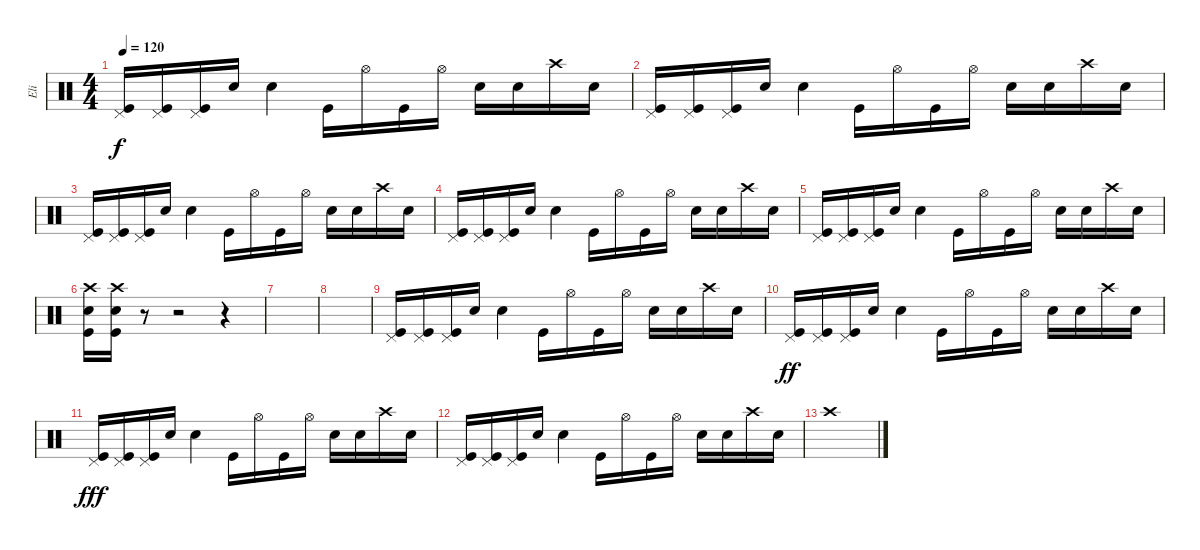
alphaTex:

\track ("Eli" "Eli") {instrument percussion}
\staff {score}
\articulation defaults
\ts (4 4)
\tempo 120
\clef neutral
\ks c
("Pedal Hi-Hat (hit)" "Kick (hit)").16{dy f} ("Pedal Hi-Hat (hit)" "Kick (hit)").16 ("Pedal Hi-Hat (hit)" "Kick (hit)").16 "Electric Snare (hit)".16 "Electric Snare (hit)".4 "Kick (hit)".16 "Hi-Hat (open)".16 "Kick (hit)".16 "Hi-Hat (open)".16 "Electric Snare (hit)".16 "Electric Snare (hit)".16 "Crash high (hit)".16 "Electric Snare (hit)".16 |
("Pedal Hi-Hat (hit)" "Kick (hit)").16 ("Pedal Hi-Hat (hit)" "Kick (hit)").16 ("Pedal Hi-Hat (hit)" "Kick (hit)").16 "Electric Snare (hit)".16 "Electric Snare (hit)".4 "Kick (hit)".16 "Hi-Hat (open)".16 "Kick (hit)".16 "Hi-Hat (open)".16 "Electric Snare (hit)".16 "Electric Snare (hit)".16 "Crash high (hit)".16 "Electric Snare (hit)".16 |
("Pedal Hi-Hat (hit)" "Kick (hit)").16 ("Pedal Hi-Hat (hit)" "Kick (hit)").16 ("Pedal Hi-Hat (hit)" "Kick (hit)").16 "Electric Snare (hit)".16 "Electric Snare (hit)".4 "Kick (hit)".16 "Hi-Hat (open)".16 "Kick (hit)".16 "Hi-Hat (open)".16 "Electric Snare (hit)".16 "Electric Snare (hit)".16 "Crash high (hit)".16 "Electric Snare (hit)".16 |
("Pedal Hi-Hat (hit)" "Kick (hit)").16 ("Pedal Hi-Hat (hit)" "Kick (hit)").16 ("Pedal Hi-Hat (hit)" "Kick (hit)").16 "Electric Snare (hit)".16 "Electric Snare (hit)".4 "Kick (hit)".16 "Hi-Hat (open)".16 "Kick (hit)".16 "Hi-Hat (open)".16 "Electric Snare (hit)".16 "Electric Snare (hit)".16 "Crash high (hit)".16 "Electric Snare (hit)".16 |
("Pedal Hi-Hat (hit)" "Kick (hit)").16 ("Pedal Hi-Hat (hit)" "Kick (hit)").16 ("Pedal Hi-Hat (hit)" "Kick (hit)").16 "Electric Snare (hit)".16 "Electric Snare (hit)".4 "Kick (hit)".16 "Hi-Hat (open)".16 "Kick (hit)".16 "Hi-Hat (open)".16 "Electric Snare (hit)".16 "Electric Snare (hit)".16 "Crash high (hit)".16 "Electric Snare (hit)".16 |
("Electric Snare (hit)" "Kick (hit)" "Crash high (hit)").16 ("Electric Snare (hit)" "Kick (hit)" "Crash high (hit)").16 r.8 r.2 r.4 |
|
|
("Pedal Hi-Hat (hit)" "Kick (hit)").16 ("Pedal Hi-Hat (hit)" "Kick (hit)").16 ("Pedal Hi-Hat (hit)" "Kick (hit)").16 "Electric Snare (hit)".16 "Electric Snare (hit)".4 "Kick (hit)".16 "Hi-Hat (open)".16 "Kick (hit)".16 "Hi-Hat (open)".16 "Electric Snare (hit)".16 "Electric Snare (hit)".16 "Crash high (hit)".16 "Electric Snare (hit)".16 |
("Pedal Hi-Hat (hit)" "Kick (hit)").16{dy ff} ("Pedal Hi-Hat (hit)" "Kick (hit)").16 ("Pedal Hi-Hat (hit)" "Kick (hit)").16 "Electric Snare (hit)".16 "Electric Snare (hit)".4 "Kick (hit)".16 "Hi-Hat (open)".16 "Kick (hit)".16 "Hi-Hat (open)".16 "Electric Snare (hit)".16 "Electric Snare (hit)".16 "Crash high (hit)".16 "Electric Snare (hit)".16 |
("Pedal Hi-Hat (hit)" "Kick (hit)").16{dy fff} ("Pedal Hi-Hat (hit)" "Kick (hit)").16 ("Pedal Hi-Hat (hit)" "Kick (hit)").16 "Electric Snare (hit)".16 "Electric Snare (hit)".4 "Kick (hit)".16 "Hi-Hat (open)".16 "Kick (hit)".16 "Hi-Hat (open)".16 "Electric Snare (hit)".16 "Electric Snare (hit)".16 "Crash high (hit)".16 "Electric Snare (hit)".16 |
("Pedal Hi-Hat (hit)" "Kick (hit)").16 ("Pedal Hi-Hat (hit)" "Kick (hit)").16 ("Pedal Hi-Hat (hit)" "Kick (hit)").16 "Electric Snare (hit)".16 "Electric Snare (hit)".4 "Kick (hit)".16 "Hi-Hat (open)".16 "Kick (hit)".16 "Hi-Hat (open)".16 "Electric Snare (hit)".16 "Electric Snare (hit)".16 "Crash high (hit)".16 "Electric Snare (hit)".16 |
"Crash high (hit)".1
